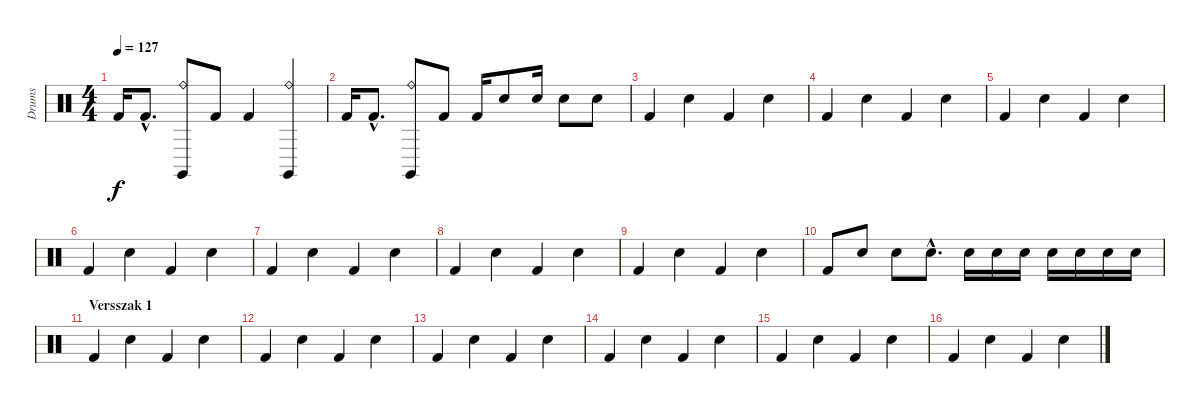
\track ("Drums" "Drums") {instrument percussion}
\staff {score}
\articulation defaults
\ts (4 4)
\tempo 127
\clef neutral
\ks c "Kick (hit) 2".16{dy f} "Kick (hit) 2"{hac}.8{d}
("Ride (bell)" "Claves (hit)").8 "Kick (hit) 2".8 "Kick (hit) 2".4 ("Ride (bell)" "Claves (hit)").4 |
"Kick (hit) 2".16 "Kick (hit) 2"{hac}.8{d} ("Ride (bell)" "Claves (hit)").8 "Kick (hit) 2".8 "Kick (hit) 2".16 "Electric Snare (hit)".8 "Electric Snare (hit)".16 "Electric Snare (hit)".8 "Electric Snare (hit)".8 |
"Kick (hit) 2".4 "Electric Snare (hit)".4 "Kick (hit) 2".4 "Electric Snare (hit)".4 |
"Kick (hit) 2".4 "Electric Snare (hit)".4 "Kick (hit) 2".4 "Electric Snare (hit)".4 |
"Kick (hit) 2".4 "Electric Snare (hit)".4 "Kick (hit) 2".4 "Electric Snare (hit)".4 |
"Kick (hit) 2".4 "Electric Snare (hit)".4 "Kick (hit) 2".4 "Electric Snare (hit)".4 |
"Kick (hit) 2".4 "Electric Snare (hit)".4 "Kick (hit) 2".4 "Electric Snare (hit)".4 |
"Kick (hit) 2".4 "Electric Snare (hit)".4 "Kick (hit) 2".4 "Electric Snare (hit)".4 |
"Kick (hit) 2".4 "Electric Snare (hit)".4 "Kick (hit) 2".4 "Electric Snare (hit)".4 |
"Kick (hit) 2".8 "Electric Snare (hit)".8 "Electric Snare (hit)".8 "Electric Snare (hit)"{hac}.8{d} "Electric Snare (hit)".16 "Electric Snare (hit)".16 "Electric Snare (hit)".16 "Electric Snare (hit)".16 "Electric Snare (hit)".16 "Electric Snare (hit)".16 "Electric Snare (hit)".16 |
\section ("" "Versszak 1")
"Kick (hit) 2".4 "Electric Snare (hit)".4 "Kick (hit) 2".4 "Electric Snare (hit)".4 |
"Kick (hit) 2".4 "Electric Snare (hit)".4 "Kick (hit) 2".4 "Electric Snare (hit)".4 |
"Kick (hit) 2".4 "Electric Snare (hit)".4 "Kick (hit) 2".4 "Electric Snare (hit)".4 |
"Kick (hit) 2".4 "Electric Snare (hit)".4 "Kick (hit) 2".4 "Electric Snare (hit)".4 |
"Kick (hit) 2".4 "Electric Snare (hit)".4 "Kick (hit) 2".4 "Electric Snare (hit)".4 |
"Kick (hit) 2".4 "Electric Snare (hit)".4 "Kick (hit) 2".4 "Electric Snare (hit)".4
